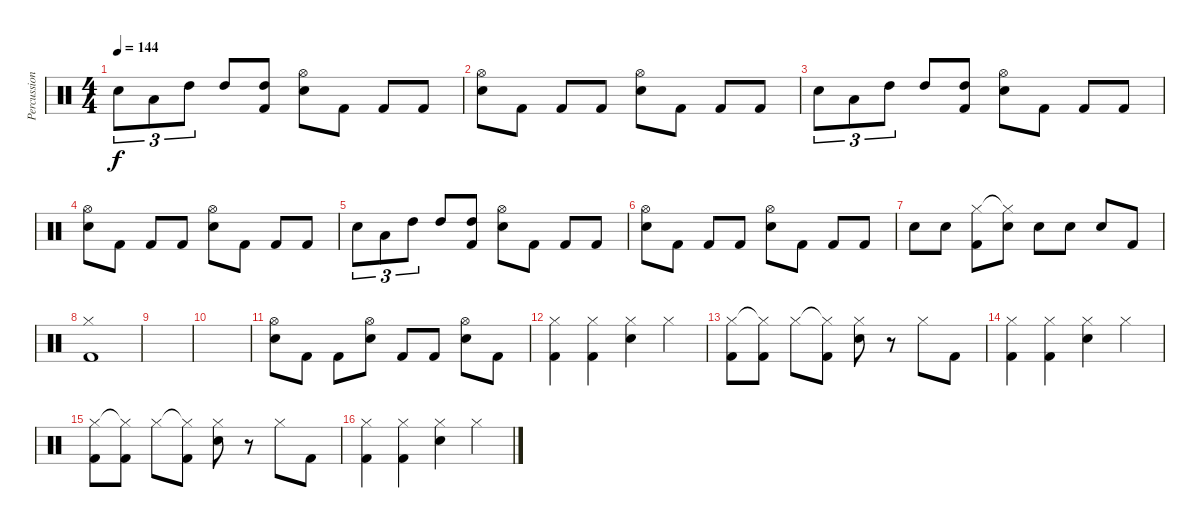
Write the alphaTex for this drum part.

\track ("Percussion" "Percussion") {instrument percussion}
\staff {score}
\articulation defaults
\ts (4 4)
\tempo 144
\clef neutral
\ks c "Snare (hit) 2".8{tu (3 2) dy f} "Low Tom (hit)".8{tu (3 2)} "High Tom (hit)".8{tu (3 2)} "High Tom (hit)".8
("High Tom (hit)" "Kick (hit) 2").8 ("Hi-Hat (open)" "Snare (hit) 2").8 "Kick (hit) 2".8 "Kick (hit) 2".8 "Kick (hit) 2".8 |
("Hi-Hat (open)" "Snare (hit) 2").8 "Kick (hit) 2".8 "Kick (hit) 2".8 "Kick (hit) 2".8 ("Hi-Hat (open)" "Snare (hit) 2").8 "Kick (hit) 2".8 "Kick (hit) 2".8 "Kick (hit) 2".8 |
"Snare (hit) 2".8{tu (3 2)} "Low Tom (hit)".8{tu (3 2)} "High Tom (hit)".8{tu (3 2)} "High Tom (hit)".8 ("High Tom (hit)" "Kick (hit) 2").8 ("Hi-Hat (open)" "Snare (hit) 2").8 "Kick (hit) 2".8 "Kick (hit) 2".8 "Kick (hit) 2".8 |
("Hi-Hat (open)" "Snare (hit) 2").8 "Kick (hit) 2".8 "Kick (hit) 2".8 "Kick (hit) 2".8 ("Hi-Hat (open)" "Snare (hit) 2").8 "Kick (hit) 2".8 "Kick (hit) 2".8 "Kick (hit) 2".8 |
"Snare (hit) 2".8{tu (3 2)} "Low Tom (hit)".8{tu (3 2)} "High Tom (hit)".8{tu (3 2)} "High Tom (hit)".8 ("High Tom (hit)" "Kick (hit) 2").8 ("Hi-Hat (open)" "Snare (hit) 2").8 "Kick (hit) 2".8 "Kick (hit) 2".8 "Kick (hit) 2".8 |
("Hi-Hat (open)" "Snare (hit) 2").8 "Kick (hit) 2".8 "Kick (hit) 2".8 "Kick (hit) 2".8 ("Hi-Hat (open)" "Snare (hit) 2").8 "Kick (hit) 2".8 "Kick (hit) 2".8 "Kick (hit) 2".8 |
"Snare (hit) 2".8 "Snare (hit) 2".8 ("Hi-Hat (closed)" "Kick (hit) 2").8 ("Hi-Hat (closed)"{t} "Snare (hit) 2").8 "Snare (hit) 2".8 "Snare (hit) 2".8 "Snare (hit) 2".8 "Kick (hit) 2".8 |
("Hi-Hat (closed)" "Kick (hit) 2").1 |
|
|
("Hi-Hat (open)" "Snare (hit) 2").8 "Kick (hit) 2".8 "Kick (hit) 2".8 ("Hi-Hat (open)" "Snare (hit) 2").8 "Kick (hit) 2".8 "Kick (hit) 2".8 ("Hi-Hat (open)" "Snare (hit) 2").8 "Kick (hit) 2".8 |
("Hi-Hat (closed)" "Kick (hit) 2").4 ("Hi-Hat (closed)" "Kick (hit) 2").4 ("Hi-Hat (closed)" "Snare (hit) 2").4 "Hi-Hat (closed)".4 |
("Hi-Hat (closed)" "Kick (hit) 2").8 ("Hi-Hat (closed)"{t} "Kick (hit) 2").8 "Hi-Hat (closed)".8 ("Hi-Hat (closed)"{t} "Kick (hit) 2").8 ("Hi-Hat (closed)" "Snare (hit) 2").8 r.8 "Hi-Hat (closed)".8 "Kick (hit) 2".8 |
("Hi-Hat (closed)" "Kick (hit) 2").4 ("Hi-Hat (closed)" "Kick (hit) 2").4 ("Hi-Hat (closed)" "Snare (hit) 2").4 "Hi-Hat (closed)".4 |
("Hi-Hat (closed)" "Kick (hit) 2").8 ("Hi-Hat (closed)"{t} "Kick (hit) 2").8 "Hi-Hat (closed)".8 ("Hi-Hat (closed)"{t} "Kick (hit) 2").8 ("Hi-Hat (closed)" "Snare (hit) 2").8 r.8 "Hi-Hat (closed)".8 "Kick (hit) 2".8 |
("Hi-Hat (closed)" "Kick (hit) 2").4 ("Hi-Hat (closed)" "Kick (hit) 2").4 ("Hi-Hat (closed)" "Snare (hit) 2").4 "Hi-Hat (closed)".4
